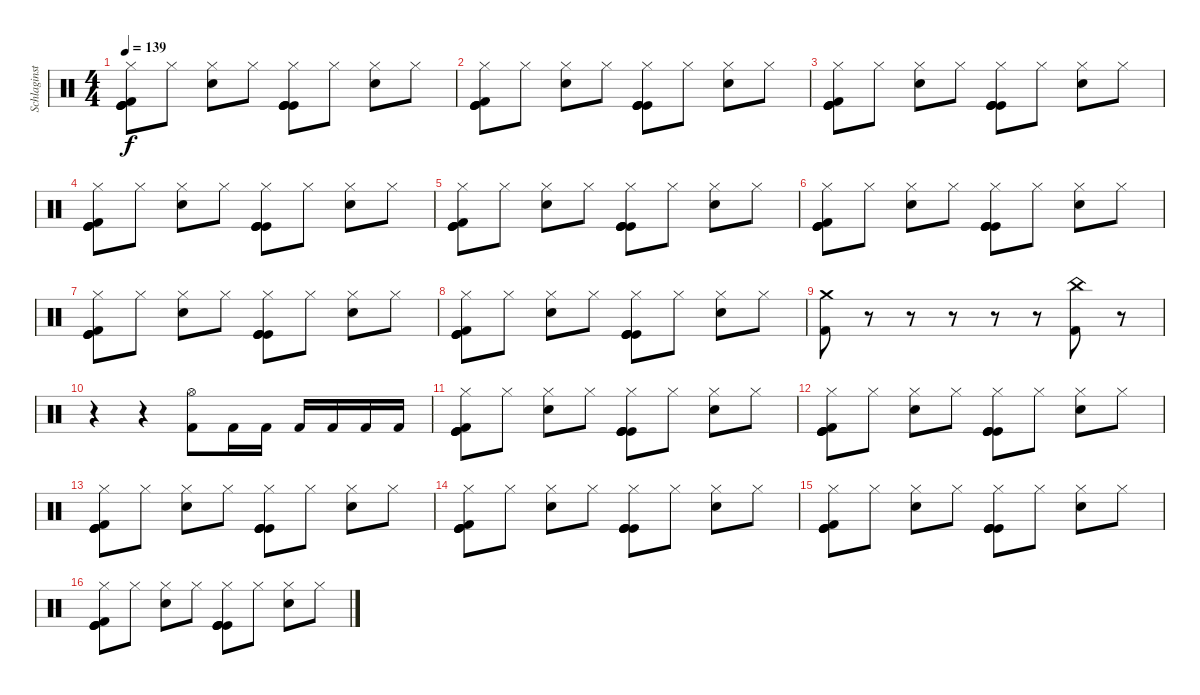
\track ("Schlaginstrumente - Auswahl" "Schlaginst") {instrument percussion}
\staff {score}
\articulation defaults
\ts (4 4)
\tempo 139
\clef neutral
\ks c
("Kick (hit)" "Kick (hit)" "Kick (hit)" "Hi-Hat (closed)" "Kick (hit) 2").8{dy f} "Hi-Hat (closed)".8 ("Hi-Hat (closed)" "Snare (hit) 2").8 "Hi-Hat (closed)".8 ("Kick (hit)" "Kick (hit)" "Kick (hit)" "Hi-Hat (closed)" "Kick (hit)").8 "Hi-Hat (closed)".8 ("Hi-Hat (closed)" "Snare (hit) 2").8 "Hi-Hat (closed)".8 |
("Kick (hit)" "Kick (hit)" "Kick (hit)" "Hi-Hat (closed)" "Kick (hit) 2").8 "Hi-Hat (closed)".8 ("Hi-Hat (closed)" "Snare (hit) 2").8 "Hi-Hat (closed)".8 ("Kick (hit)" "Kick (hit)" "Kick (hit)" "Hi-Hat (closed)" "Kick (hit)").8 "Hi-Hat (closed)".8 ("Hi-Hat (closed)" "Snare (hit) 2").8 "Hi-Hat (closed)".8 |
("Kick (hit)" "Kick (hit)" "Kick (hit)" "Hi-Hat (closed)" "Kick (hit) 2").8 "Hi-Hat (closed)".8 ("Hi-Hat (closed)" "Snare (hit) 2").8 "Hi-Hat (closed)".8 ("Kick (hit)" "Kick (hit)" "Kick (hit)" "Hi-Hat (closed)" "Kick (hit)").8 "Hi-Hat (closed)".8 ("Hi-Hat (closed)" "Snare (hit) 2").8 "Hi-Hat (closed)".8 |
("Kick (hit)" "Kick (hit)" "Kick (hit)" "Hi-Hat (closed)" "Kick (hit) 2").8 "Hi-Hat (closed)".8 ("Hi-Hat (closed)" "Snare (hit) 2").8 "Hi-Hat (closed)".8 ("Kick (hit)" "Kick (hit)" "Kick (hit)" "Hi-Hat (closed)" "Kick (hit)").8 "Hi-Hat (closed)".8 ("Hi-Hat (closed)" "Snare (hit) 2").8 "Hi-Hat (closed)".8 |
("Kick (hit)" "Kick (hit)" "Kick (hit)" "Hi-Hat (closed)" "Kick (hit) 2").8 "Hi-Hat (closed)".8 ("Hi-Hat (closed)" "Snare (hit) 2").8 "Hi-Hat (closed)".8 ("Kick (hit)" "Kick (hit)" "Kick (hit)" "Hi-Hat (closed)" "Kick (hit)").8 "Hi-Hat (closed)".8 ("Hi-Hat (closed)" "Snare (hit) 2").8 "Hi-Hat (closed)".8 |
("Kick (hit)" "Kick (hit)" "Kick (hit)" "Hi-Hat (closed)" "Kick (hit) 2").8 "Hi-Hat (closed)".8 ("Hi-Hat (closed)" "Snare (hit) 2").8 "Hi-Hat (closed)".8 ("Kick (hit)" "Kick (hit)" "Kick (hit)" "Hi-Hat (closed)" "Kick (hit)").8 "Hi-Hat (closed)".8 ("Hi-Hat (closed)" "Snare (hit) 2").8 "Hi-Hat (closed)".8 |
("Kick (hit)" "Kick (hit)" "Kick (hit)" "Hi-Hat (closed)" "Kick (hit) 2").8 "Hi-Hat (closed)".8 ("Hi-Hat (closed)" "Snare (hit) 2").8 "Hi-Hat (closed)".8 ("Kick (hit)" "Kick (hit)" "Kick (hit)" "Hi-Hat (closed)" "Kick (hit)").8 "Hi-Hat (closed)".8 ("Hi-Hat (closed)" "Snare (hit) 2").8 "Hi-Hat (closed)".8 |
("Kick (hit)" "Kick (hit)" "Kick (hit)" "Hi-Hat (closed)" "Kick (hit) 2").8 "Hi-Hat (closed)".8 ("Hi-Hat (closed)" "Snare (hit) 2").8 "Hi-Hat (closed)".8 ("Kick (hit)" "Kick (hit)" "Kick (hit)" "Hi-Hat (closed)" "Kick (hit)").8 "Hi-Hat (closed)".8 ("Hi-Hat (closed)" "Snare (hit) 2").8 "Hi-Hat (closed)".8 |
("Crash medium (hit)" "Kick (hit) 2").8 r.8 r.8 r.8 r.8 r.8 ("China (hit)" "Kick (hit) 2").8 r.8 |
r.4 r.4 ("Hi-Hat (open)" "Kick (hit) 2").8 "Kick (hit) 2".16 "Kick (hit) 2".16 "Kick (hit) 2".16 "Kick (hit) 2".16 "Kick (hit) 2".16 "Kick (hit) 2".16 |
("Kick (hit)" "Kick (hit)" "Kick (hit)" "Hi-Hat (closed)" "Kick (hit) 2").8 "Hi-Hat (closed)".8 ("Hi-Hat (closed)" "Snare (hit) 2").8 "Hi-Hat (closed)".8 ("Kick (hit)" "Kick (hit)" "Kick (hit)" "Hi-Hat (closed)" "Kick (hit)").8 "Hi-Hat (closed)".8 ("Hi-Hat (closed)" "Snare (hit) 2").8 "Hi-Hat (closed)".8 |
("Kick (hit)" "Kick (hit)" "Kick (hit)" "Hi-Hat (closed)" "Kick (hit) 2").8 "Hi-Hat (closed)".8 ("Hi-Hat (closed)" "Snare (hit) 2").8 "Hi-Hat (closed)".8 ("Kick (hit)" "Kick (hit)" "Kick (hit)" "Hi-Hat (closed)" "Kick (hit)").8 "Hi-Hat (closed)".8 ("Hi-Hat (closed)" "Snare (hit) 2").8 "Hi-Hat (closed)".8 |
("Kick (hit)" "Kick (hit)" "Kick (hit)" "Hi-Hat (closed)" "Kick (hit) 2").8 "Hi-Hat (closed)".8 ("Hi-Hat (closed)" "Snare (hit) 2").8 "Hi-Hat (closed)".8 ("Kick (hit)" "Kick (hit)" "Kick (hit)" "Hi-Hat (closed)" "Kick (hit)").8 "Hi-Hat (closed)".8 ("Hi-Hat (closed)" "Snare (hit) 2").8 "Hi-Hat (closed)".8 |
("Kick (hit)" "Kick (hit)" "Kick (hit)" "Hi-Hat (closed)" "Kick (hit) 2").8 "Hi-Hat (closed)".8 ("Hi-Hat (closed)" "Snare (hit) 2").8 "Hi-Hat (closed)".8 ("Kick (hit)" "Kick (hit)" "Kick (hit)" "Hi-Hat (closed)" "Kick (hit)").8 "Hi-Hat (closed)".8 ("Hi-Hat (closed)" "Snare (hit) 2").8 "Hi-Hat (closed)".8 |
("Kick (hit)" "Kick (hit)" "Kick (hit)" "Hi-Hat (closed)" "Kick (hit) 2").8 "Hi-Hat (closed)".8 ("Hi-Hat (closed)" "Snare (hit) 2").8 "Hi-Hat (closed)".8 ("Kick (hit)" "Kick (hit)" "Kick (hit)" "Hi-Hat (closed)" "Kick (hit)").8 "Hi-Hat (closed)".8 ("Hi-Hat (closed)" "Snare (hit) 2").8 "Hi-Hat (closed)".8 |
("Kick (hit)" "Kick (hit)" "Kick (hit)" "Hi-Hat (closed)" "Kick (hit) 2").8 "Hi-Hat (closed)".8 ("Hi-Hat (closed)" "Snare (hit) 2").8 "Hi-Hat (closed)".8 ("Kick (hit)" "Kick (hit)" "Kick (hit)" "Hi-Hat (closed)" "Kick (hit)").8 "Hi-Hat (closed)".8 ("Hi-Hat (closed)" "Snare (hit) 2").8 "Hi-Hat (closed)".8
